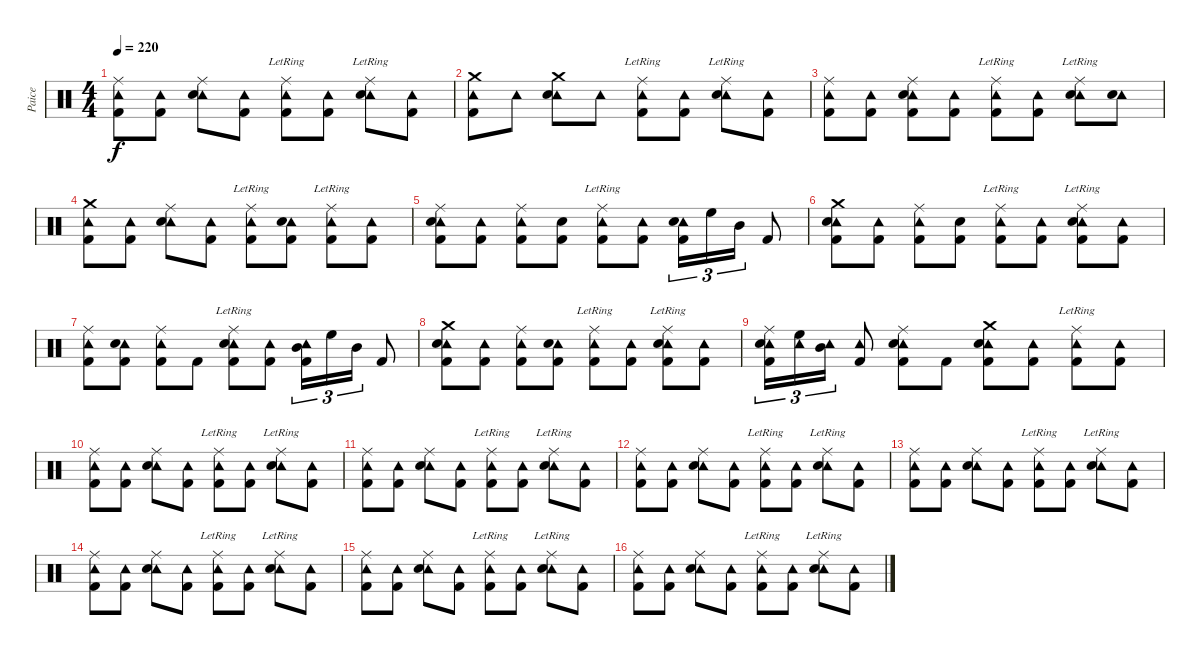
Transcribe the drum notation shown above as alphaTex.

\track ("Paice" "Paice") {instrument percussion}
\staff {score}
\articulation defaults
\ts (4 4)
\tempo 220
\clef neutral
\ks c
("Ride (middle)" "Tambourine (hit)" "Kick (hit) 2").8{dy f} ("Tambourine (hit)" "Kick (hit) 2").8 ("Ride (middle)" "Tambourine (hit)" "Snare (hit) 2").8 ("Tambourine (hit)" "Kick (hit) 2").8 ("Ride (middle)"{lr} "Tambourine (hit)" "Kick (hit) 2").8 ("Tambourine (hit)" "Kick (hit) 2").8 ("Ride (middle)"{lr} "Tambourine (hit)" "Snare (hit) 2").8 ("Tambourine (hit)" "Kick (hit) 2").8 |
("Crash medium (hit)" "Tambourine (hit)" "Kick (hit) 2").8 "Tambourine (hit)".8 ("Crash medium (hit)" "Tambourine (hit)" "Snare (hit) 2").8 "Tambourine (hit)".8 ("Ride (middle)"{lr} "Tambourine (hit)" "Kick (hit) 2").8 ("Tambourine (hit)" "Kick (hit) 2").8 ("Ride (middle)"{lr} "Tambourine (hit)" "Snare (hit) 2").8 ("Tambourine (hit)" "Kick (hit) 2").8 |
("Ride (middle)" "Tambourine (hit)" "Kick (hit) 2").8 ("Tambourine (hit)" "Kick (hit) 2").8 ("Ride (middle)" "Tambourine (hit)" "Snare (hit) 2" "Kick (hit) 2").8 ("Tambourine (hit)" "Kick (hit) 2").8 ("Ride (middle)"{lr} "Tambourine (hit)" "Kick (hit) 2").8 ("Tambourine (hit)" "Kick (hit) 2").8 ("Ride (middle)"{lr} "Tambourine (hit)" "Snare (hit) 2").8 ("Tambourine (hit)" "Snare (hit) 2").8 |
("Crash medium (hit)" "Tambourine (hit)" "Kick (hit) 2").8 ("Tambourine (hit)" "Kick (hit) 2").8 ("Ride (middle)" "Tambourine (hit)" "Snare (hit) 2").8 ("Tambourine (hit)" "Kick (hit) 2").8 ("Ride (middle)"{lr} "Tambourine (hit)" "Kick (hit) 2").8 ("Tambourine (hit)" "Snare (hit) 2" "Kick (hit) 2").8 ("Ride (middle)"{lr} "Tambourine (hit)" "Kick (hit) 2").8 ("Tambourine (hit)" "Kick (hit) 2").8 |
("Ride (middle)" "Tambourine (hit)" "Snare (hit) 2" "Kick (hit) 2").8 ("Tambourine (hit)" "Kick (hit) 2").8 ("Ride (middle)" "Tambourine (hit)" "Kick (hit) 2").8 ("Snare (hit) 2" "Kick (hit) 2").8 ("Ride (middle)"{lr} "Tambourine (hit)" "Kick (hit) 2").8 ("Tambourine (hit)" "Kick (hit) 2").8 ("Tambourine (hit)" "Snare (hit) 2" "Kick (hit) 2").16{tu (3 2)} "High Floor Tom (hit)".16{tu (3 2)} "Mid Tom (hit)".16{tu (3 2)} "Kick (hit) 2".8 |
("Crash medium (hit)" "Tambourine (hit)" "Snare (hit) 2" "Kick (hit) 2").8 ("Tambourine (hit)" "Kick (hit) 2").8 ("Ride (middle)" "Tambourine (hit)" "Kick (hit) 2").8 ("Snare (hit) 2" "Kick (hit) 2").8 ("Ride (middle)"{lr} "Tambourine (hit)" "Kick (hit) 2").8 ("Tambourine (hit)" "Kick (hit) 2").8 ("Ride (middle)"{lr} "Tambourine (hit)" "Snare (hit) 2" "Kick (hit) 2").8 ("Tambourine (hit)" "Kick (hit) 2").8 |
("Ride (middle)" "Tambourine (hit)" "Kick (hit) 2").8 ("Tambourine (hit)" "Snare (hit) 2" "Kick (hit) 2").8 ("Ride (middle)" "Tambourine (hit)" "Kick (hit) 2").8 "Kick (hit) 2".8 ("Ride (middle)"{lr} "Tambourine (hit)" "Snare (hit) 2" "Kick (hit) 2").8 ("Tambourine (hit)" "Kick (hit) 2").8 ("Tambourine (hit)" "Mid Tom (hit)" "Kick (hit) 2").16{tu (3 2)} "High Floor Tom (hit)".16{tu (3 2)} "Mid Tom (hit)".16{tu (3 2)} "Kick (hit) 2".8 |
("Crash medium (hit)" "Tambourine (hit)" "Snare (hit) 2" "Kick (hit) 2").8 ("Tambourine (hit)" "Kick (hit) 2").8 ("Ride (middle)" "Tambourine (hit)" "Kick (hit) 2").8 ("Tambourine (hit)" "Snare (hit) 2" "Kick (hit) 2").8 ("Ride (middle)"{lr} "Tambourine (hit)" "Kick (hit) 2").8 ("Tambourine (hit)" "Kick (hit) 2").8 ("Ride (middle)"{lr} "Tambourine (hit)" "Snare (hit) 2" "Kick (hit) 2").8 ("Tambourine (hit)" "Kick (hit) 2").8 |
("Ride (middle)" "Tambourine (hit)" "Snare (hit) 2" "Kick (hit) 2").16{tu (3 2)} ("Tambourine (hit)" "High Floor Tom (hit)").16{tu (3 2)} ("Tambourine (hit)" "Mid Tom (hit)").16{tu (3 2)} ("Tambourine (hit)" "Kick (hit) 2").8 ("Ride (middle)" "Tambourine (hit)" "Snare (hit) 2" "Kick (hit) 2").8 "Kick (hit) 2".8 ("Crash medium (hit)" "Tambourine (hit)" "Snare (hit) 2" "Kick (hit) 2").8 ("Tambourine (hit)" "Kick (hit) 2").8 ("Ride (middle)"{lr} "Tambourine (hit)" "Kick (hit) 2").8 ("Tambourine (hit)" "Kick (hit) 2").8 |
("Ride (middle)" "Tambourine (hit)" "Kick (hit) 2").8 ("Tambourine (hit)" "Kick (hit) 2").8 ("Ride (middle)" "Tambourine (hit)" "Snare (hit) 2").8 ("Tambourine (hit)" "Kick (hit) 2").8 ("Ride (middle)"{lr} "Tambourine (hit)" "Kick (hit) 2").8 ("Tambourine (hit)" "Kick (hit) 2").8 ("Ride (middle)"{lr} "Tambourine (hit)" "Snare (hit) 2").8 ("Tambourine (hit)" "Kick (hit) 2").8 |
("Ride (middle)" "Tambourine (hit)" "Kick (hit) 2").8 ("Tambourine (hit)" "Kick (hit) 2").8 ("Ride (middle)" "Tambourine (hit)" "Snare (hit) 2").8 ("Tambourine (hit)" "Kick (hit) 2").8 ("Ride (middle)"{lr} "Tambourine (hit)" "Kick (hit) 2").8 ("Tambourine (hit)" "Kick (hit) 2").8 ("Ride (middle)"{lr} "Tambourine (hit)" "Snare (hit) 2").8 ("Tambourine (hit)" "Kick (hit) 2").8 |
("Ride (middle)" "Tambourine (hit)" "Kick (hit) 2").8{volume 9} ("Tambourine (hit)" "Kick (hit) 2").8 ("Ride (middle)" "Tambourine (hit)" "Snare (hit) 2").8 ("Tambourine (hit)" "Kick (hit) 2").8 ("Ride (middle)"{lr} "Tambourine (hit)" "Kick (hit) 2").8 ("Tambourine (hit)" "Kick (hit) 2").8 ("Ride (middle)"{lr} "Tambourine (hit)" "Snare (hit) 2").8 ("Tambourine (hit)" "Kick (hit) 2").8 |
("Ride (middle)" "Tambourine (hit)" "Kick (hit) 2").8 ("Tambourine (hit)" "Kick (hit) 2").8 ("Ride (middle)" "Tambourine (hit)" "Snare (hit) 2").8 ("Tambourine (hit)" "Kick (hit) 2").8 ("Ride (middle)"{lr} "Tambourine (hit)" "Kick (hit) 2").8 ("Tambourine (hit)" "Kick (hit) 2").8 ("Ride (middle)"{lr} "Tambourine (hit)" "Snare (hit) 2").8 ("Tambourine (hit)" "Kick (hit) 2").8 |
("Ride (middle)" "Tambourine (hit)" "Kick (hit) 2").8{volume 5} ("Tambourine (hit)" "Kick (hit) 2").8 ("Ride (middle)" "Tambourine (hit)" "Snare (hit) 2").8 ("Tambourine (hit)" "Kick (hit) 2").8 ("Ride (middle)"{lr} "Tambourine (hit)" "Kick (hit) 2").8 ("Tambourine (hit)" "Kick (hit) 2").8 ("Ride (middle)"{lr} "Tambourine (hit)" "Snare (hit) 2").8 ("Tambourine (hit)" "Kick (hit) 2").8 |
("Ride (middle)" "Tambourine (hit)" "Kick (hit) 2").8 ("Tambourine (hit)" "Kick (hit) 2").8 ("Ride (middle)" "Tambourine (hit)" "Snare (hit) 2").8 ("Tambourine (hit)" "Kick (hit) 2").8 ("Ride (middle)"{lr} "Tambourine (hit)" "Kick (hit) 2").8 ("Tambourine (hit)" "Kick (hit) 2").8 ("Ride (middle)"{lr} "Tambourine (hit)" "Snare (hit) 2").8 ("Tambourine (hit)" "Kick (hit) 2").8 |
("Ride (middle)" "Tambourine (hit)" "Kick (hit) 2").8{volume 0} ("Tambourine (hit)" "Kick (hit) 2").8 ("Ride (middle)" "Tambourine (hit)" "Snare (hit) 2").8 ("Tambourine (hit)" "Kick (hit) 2").8 ("Ride (middle)"{lr} "Tambourine (hit)" "Kick (hit) 2").8 ("Tambourine (hit)" "Kick (hit) 2").8 ("Ride (middle)"{lr} "Tambourine (hit)" "Snare (hit) 2").8 ("Tambourine (hit)" "Kick (hit) 2").8
